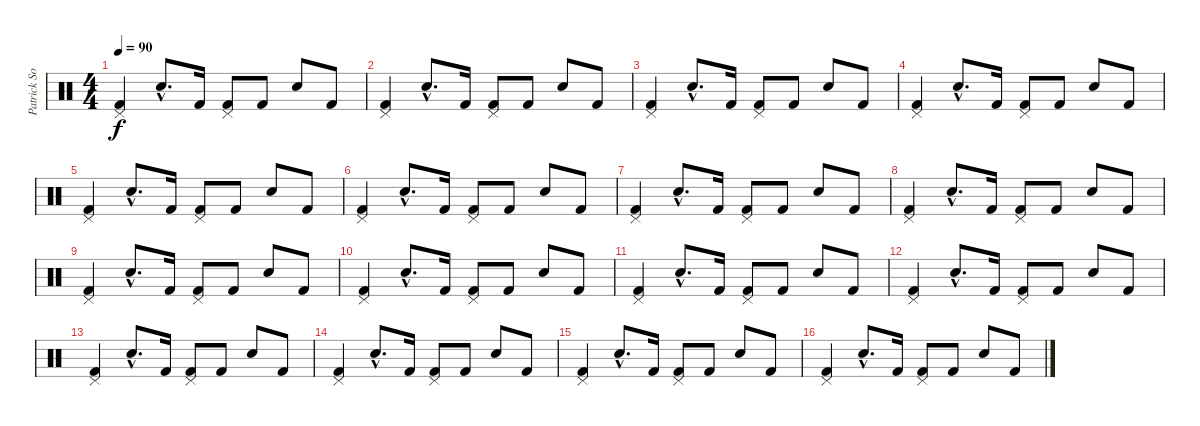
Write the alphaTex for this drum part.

\track ("Patrick Soria" "Patrick So") {instrument percussion}
\staff {score}
\articulation defaults
\ts (4 4)
\tempo 90
\clef neutral
\ks c
("Pedal Hi-Hat (hit)" "Kick (hit) 2").4{dy f} "Snare (hit) 2"{hac}.8{d} "Kick (hit) 2".16 ("Pedal Hi-Hat (hit)" "Kick (hit) 2").8 "Kick (hit) 2".8 "Snare (hit) 2".8 "Kick (hit) 2".8 |
("Pedal Hi-Hat (hit)" "Kick (hit) 2").4 "Snare (hit) 2"{hac}.8{d} "Kick (hit) 2".16 ("Pedal Hi-Hat (hit)" "Kick (hit) 2").8 "Kick (hit) 2".8 "Snare (hit) 2".8 "Kick (hit) 2".8 |
("Pedal Hi-Hat (hit)" "Kick (hit) 2").4 "Snare (hit) 2"{hac}.8{d} "Kick (hit) 2".16 ("Pedal Hi-Hat (hit)" "Kick (hit) 2").8 "Kick (hit) 2".8 "Snare (hit) 2".8 "Kick (hit) 2".8 |
("Pedal Hi-Hat (hit)" "Kick (hit) 2").4 "Snare (hit) 2"{hac}.8{d} "Kick (hit) 2".16 ("Pedal Hi-Hat (hit)" "Kick (hit) 2").8 "Kick (hit) 2".8 "Snare (hit) 2".8 "Kick (hit) 2".8 |
("Pedal Hi-Hat (hit)" "Kick (hit) 2").4 "Snare (hit) 2"{hac}.8{d} "Kick (hit) 2".16 ("Pedal Hi-Hat (hit)" "Kick (hit) 2").8 "Kick (hit) 2".8 "Snare (hit) 2".8 "Kick (hit) 2".8 |
("Pedal Hi-Hat (hit)" "Kick (hit) 2").4 "Snare (hit) 2"{hac}.8{d} "Kick (hit) 2".16 ("Pedal Hi-Hat (hit)" "Kick (hit) 2").8 "Kick (hit) 2".8 "Snare (hit) 2".8 "Kick (hit) 2".8 |
("Pedal Hi-Hat (hit)" "Kick (hit) 2").4 "Snare (hit) 2"{hac}.8{d} "Kick (hit) 2".16 ("Pedal Hi-Hat (hit)" "Kick (hit) 2").8 "Kick (hit) 2".8 "Snare (hit) 2".8 "Kick (hit) 2".8 |
("Pedal Hi-Hat (hit)" "Kick (hit) 2").4 "Snare (hit) 2"{hac}.8{d} "Kick (hit) 2".16 ("Pedal Hi-Hat (hit)" "Kick (hit) 2").8 "Kick (hit) 2".8 "Snare (hit) 2".8 "Kick (hit) 2".8 |
("Pedal Hi-Hat (hit)" "Kick (hit) 2").4 "Snare (hit) 2"{hac}.8{d} "Kick (hit) 2".16 ("Pedal Hi-Hat (hit)" "Kick (hit) 2").8 "Kick (hit) 2".8 "Snare (hit) 2".8 "Kick (hit) 2".8 |
("Pedal Hi-Hat (hit)" "Kick (hit) 2").4 "Snare (hit) 2"{hac}.8{d} "Kick (hit) 2".16 ("Pedal Hi-Hat (hit)" "Kick (hit) 2").8 "Kick (hit) 2".8 "Snare (hit) 2".8 "Kick (hit) 2".8 |
("Pedal Hi-Hat (hit)" "Kick (hit) 2").4 "Snare (hit) 2"{hac}.8{d} "Kick (hit) 2".16 ("Pedal Hi-Hat (hit)" "Kick (hit) 2").8 "Kick (hit) 2".8 "Snare (hit) 2".8 "Kick (hit) 2".8 |
("Pedal Hi-Hat (hit)" "Kick (hit) 2").4 "Snare (hit) 2"{hac}.8{d} "Kick (hit) 2".16 ("Pedal Hi-Hat (hit)" "Kick (hit) 2").8 "Kick (hit) 2".8 "Snare (hit) 2".8 "Kick (hit) 2".8 |
("Pedal Hi-Hat (hit)" "Kick (hit) 2").4 "Snare (hit) 2"{hac}.8{d} "Kick (hit) 2".16 ("Pedal Hi-Hat (hit)" "Kick (hit) 2").8 "Kick (hit) 2".8 "Snare (hit) 2".8 "Kick (hit) 2".8 |
("Pedal Hi-Hat (hit)" "Kick (hit) 2").4 "Snare (hit) 2"{hac}.8{d} "Kick (hit) 2".16 ("Pedal Hi-Hat (hit)" "Kick (hit) 2").8 "Kick (hit) 2".8 "Snare (hit) 2".8 "Kick (hit) 2".8 |
("Pedal Hi-Hat (hit)" "Kick (hit) 2").4 "Snare (hit) 2"{hac}.8{d} "Kick (hit) 2".16 ("Pedal Hi-Hat (hit)" "Kick (hit) 2").8 "Kick (hit) 2".8 "Snare (hit) 2".8 "Kick (hit) 2".8 |
("Pedal Hi-Hat (hit)" "Kick (hit) 2").4 "Snare (hit) 2"{hac}.8{d} "Kick (hit) 2".16 ("Pedal Hi-Hat (hit)" "Kick (hit) 2").8 "Kick (hit) 2".8 "Snare (hit) 2".8 "Kick (hit) 2".8
